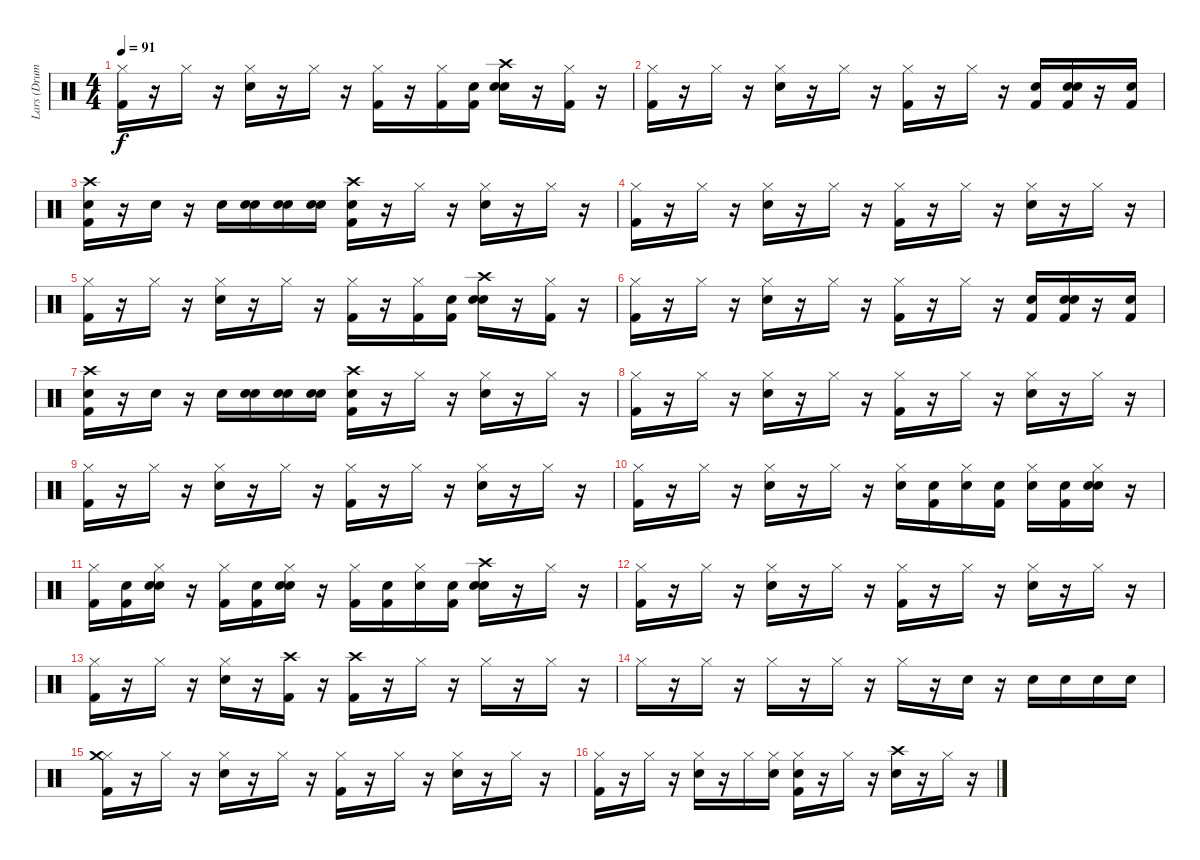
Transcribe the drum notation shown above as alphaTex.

\track ("Lars (Drums)" "Lars (Drum") {instrument percussion}
\staff {score}
\articulation defaults
\ts (4 4)
\tempo 91
\clef neutral
\ks c
("Kick (hit) 2" "Hi-Hat (closed)").16{dy f} r.16 "Hi-Hat (closed)".16 r.16 ("Snare (hit) 2" "Hi-Hat (closed)").16 r.16 "Hi-Hat (closed)".16 r.16 ("Kick (hit) 2" "Hi-Hat (closed)").16 r.16 ("Kick (hit) 2" "Hi-Hat (closed)").16 ("Snare (hit)" "Kick (hit) 2").16 ("Snare (hit)" "Snare (hit) 2" "Crash high (hit)").16 r.16 ("Kick (hit) 2" "Hi-Hat (closed)").16 r.16 |
("Kick (hit) 2" "Hi-Hat (closed)").16 r.16 "Hi-Hat (closed)".16 r.16 ("Snare (hit) 2" "Hi-Hat (closed)").16 r.16 "Hi-Hat (closed)".16 r.16 ("Kick (hit) 2" "Hi-Hat (closed)").16 r.16 "Hi-Hat (closed)".16 r.16 ("Kick (hit) 2" "Snare (hit) 2").16 ("Snare (hit)" "Kick (hit) 2" "Snare (hit) 2").16 r.16 ("Kick (hit) 2" "Snare (hit) 2").16 |
("Snare (hit)" "Kick (hit) 2" "Crash high (hit)").16 r.16 "Snare (hit) 2".16 r.16 "Snare (hit) 2".16 ("Snare (hit)" "Snare (hit) 2").16 ("Snare (hit)" "Snare (hit) 2").16 ("Snare (hit)" "Snare (hit) 2").16 ("Snare (hit)" "Kick (hit) 2" "Crash high (hit)").16 r.16 "Hi-Hat (closed)".16 r.16 ("Snare (hit) 2" "Hi-Hat (closed)").16 r.16 "Hi-Hat (closed)".16 r.16 |
("Kick (hit) 2" "Hi-Hat (closed)").16 r.16 "Hi-Hat (closed)".16 r.16 ("Snare (hit) 2" "Hi-Hat (closed)").16 r.16 "Hi-Hat (closed)".16 r.16 ("Kick (hit) 2" "Hi-Hat (closed)").16 r.16 "Hi-Hat (closed)".16 r.16 ("Snare (hit) 2" "Hi-Hat (closed)").16 r.16 "Hi-Hat (closed)".16 r.16 |
("Kick (hit) 2" "Hi-Hat (closed)").16 r.16 "Hi-Hat (closed)".16 r.16 ("Snare (hit) 2" "Hi-Hat (closed)").16 r.16 "Hi-Hat (closed)".16 r.16 ("Kick (hit) 2" "Hi-Hat (closed)").16 r.16 ("Kick (hit) 2" "Hi-Hat (closed)").16 ("Snare (hit)" "Kick (hit) 2").16 ("Snare (hit)" "Snare (hit) 2" "Crash high (hit)").16 r.16 ("Kick (hit) 2" "Hi-Hat (closed)").16 r.16 |
("Kick (hit) 2" "Hi-Hat (closed)").16 r.16 "Hi-Hat (closed)".16 r.16 ("Snare (hit) 2" "Hi-Hat (closed)").16 r.16 "Hi-Hat (closed)".16 r.16 ("Kick (hit) 2" "Hi-Hat (closed)").16 r.16 "Hi-Hat (closed)".16 r.16 ("Kick (hit) 2" "Snare (hit) 2").16 ("Snare (hit)" "Kick (hit) 2" "Snare (hit) 2").16 r.16 ("Kick (hit) 2" "Snare (hit) 2").16 |
("Snare (hit)" "Kick (hit) 2" "Crash high (hit)").16 r.16 "Snare (hit) 2".16 r.16 "Snare (hit) 2".16 ("Snare (hit)" "Snare (hit) 2").16 ("Snare (hit)" "Snare (hit) 2").16 ("Snare (hit)" "Snare (hit) 2").16 ("Snare (hit)" "Kick (hit) 2" "Crash high (hit)").16 r.16 "Hi-Hat (closed)".16 r.16 ("Snare (hit) 2" "Hi-Hat (closed)").16 r.16 "Hi-Hat (closed)".16 r.16 |
("Kick (hit) 2" "Hi-Hat (closed)").16 r.16 "Hi-Hat (closed)".16 r.16 ("Snare (hit) 2" "Hi-Hat (closed)").16 r.16 "Hi-Hat (closed)".16 r.16 ("Kick (hit) 2" "Hi-Hat (closed)").16 r.16 "Hi-Hat (closed)".16 r.16 ("Snare (hit) 2" "Hi-Hat (closed)").16 r.16 "Hi-Hat (closed)".16 r.16 |
("Kick (hit) 2" "Hi-Hat (closed)").16 r.16 "Hi-Hat (closed)".16 r.16 ("Snare (hit) 2" "Hi-Hat (closed)").16 r.16 "Hi-Hat (closed)".16 r.16 ("Kick (hit) 2" "Hi-Hat (closed)").16 r.16 "Hi-Hat (closed)".16 r.16 ("Snare (hit) 2" "Hi-Hat (closed)").16 r.16 "Hi-Hat (closed)".16 r.16 |
("Kick (hit) 2" "Hi-Hat (closed)").16 r.16 "Hi-Hat (closed)".16 r.16 ("Snare (hit) 2" "Hi-Hat (closed)").16 r.16 "Hi-Hat (closed)".16 r.16 ("Snare (hit) 2" "Hi-Hat (closed)").16 ("Snare (hit)" "Kick (hit) 2").16 ("Snare (hit)" "Hi-Hat (closed)").16 ("Snare (hit)" "Kick (hit) 2").16 ("Snare (hit)" "Hi-Hat (closed)").16 ("Snare (hit)" "Kick (hit) 2").16 ("Snare (hit)" "Snare (hit) 2" "Hi-Hat (closed)").16 r.16 |
("Kick (hit) 2" "Hi-Hat (closed)").16 ("Snare (hit)" "Kick (hit) 2").16 ("Snare (hit)" "Snare (hit) 2" "Hi-Hat (closed)").16 r.16 ("Kick (hit) 2" "Hi-Hat (closed)").16 ("Snare (hit)" "Kick (hit) 2").16 ("Snare (hit)" "Snare (hit) 2" "Hi-Hat (closed)").16 r.16 ("Kick (hit) 2" "Hi-Hat (closed)").16 ("Snare (hit)" "Kick (hit) 2").16 ("Snare (hit)" "Hi-Hat (closed)").16 ("Snare (hit)" "Kick (hit) 2").16 ("Snare (hit)" "Snare (hit) 2" "Crash high (hit)").16 r.16 "Hi-Hat (closed)".16 r.16 |
("Kick (hit) 2" "Hi-Hat (closed)").16 r.16 "Hi-Hat (closed)".16 r.16 ("Snare (hit) 2" "Hi-Hat (closed)").16 r.16 "Hi-Hat (closed)".16 r.16 ("Kick (hit) 2" "Hi-Hat (closed)").16 r.16 "Hi-Hat (closed)".16 r.16 ("Snare (hit) 2" "Hi-Hat (closed)").16 r.16 "Hi-Hat (closed)".16 r.16 |
("Kick (hit) 2" "Hi-Hat (closed)").16 r.16 "Hi-Hat (closed)".16 r.16 ("Snare (hit) 2" "Hi-Hat (closed)").16 r.16 ("Kick (hit) 2" "Crash high (hit)").16 r.16 ("Kick (hit) 2" "Crash high (hit)").16 r.16 "Hi-Hat (closed)".16 r.16 "Hi-Hat (closed)".16 r.16 "Hi-Hat (closed)".16 r.16 |
"Hi-Hat (closed)".16 r.16 "Hi-Hat (closed)".16 r.16 "Hi-Hat (closed)".16 r.16 "Hi-Hat (closed)".16 r.16 "Hi-Hat (closed)".16 r.16 "Snare (hit) 2".16 r.16 "Snare (hit) 2".16 "Snare (hit) 2".16 "Snare (hit) 2".16 "Snare (hit) 2".16 |
("Kick (hit) 2" "Hi-Hat (closed)" "Crash medium (hit)").16 r.16 "Hi-Hat (closed)".16 r.16 ("Snare (hit) 2" "Hi-Hat (closed)").16 r.16 "Hi-Hat (closed)".16 r.16 ("Kick (hit) 2" "Hi-Hat (closed)").16 r.16 "Hi-Hat (closed)".16 r.16 ("Snare (hit) 2" "Hi-Hat (closed)").16 r.16 "Hi-Hat (closed)".16 r.16 |
("Kick (hit) 2" "Hi-Hat (closed)").16 r.16 "Hi-Hat (closed)".16 r.16 ("Snare (hit) 2" "Hi-Hat (closed)").16 r.16 "Hi-Hat (closed)".16 ("Snare (hit)" "Hi-Hat (closed)").16 ("Snare (hit)" "Kick (hit) 2" "Hi-Hat (closed)").16 r.16 "Hi-Hat (closed)".16 r.16 ("Snare (hit) 2" "Crash high (hit)").16 r.16 "Hi-Hat (closed)".16 r.16
